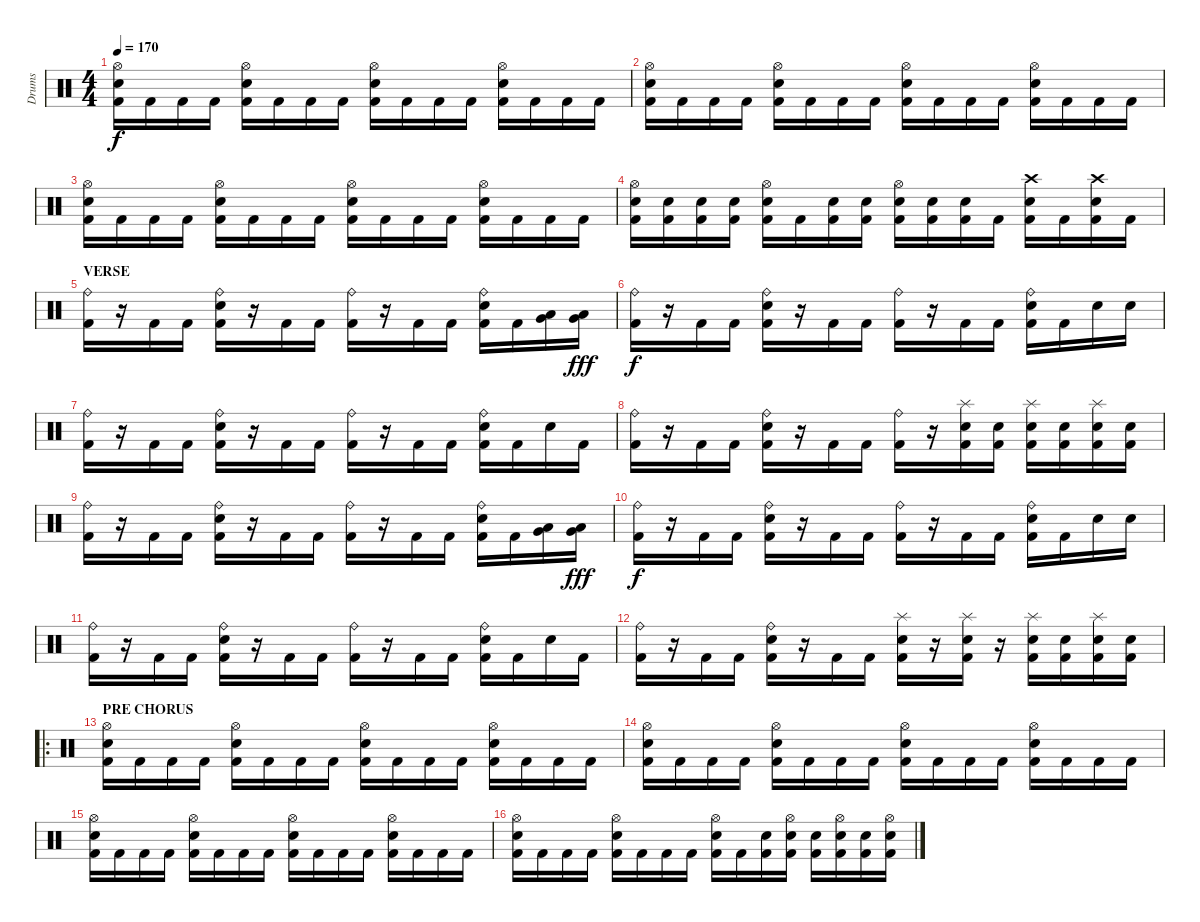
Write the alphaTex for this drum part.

\track ("Drums" "Drums") {instrument percussion}
\staff {score}
\articulation defaults
\ts (4 4)
\tempo 170
\clef neutral
\ks c
("Hi-Hat (open)" "Electric Snare (hit)" "Kick (hit) 2").16{dy f} "Kick (hit) 2".16 "Kick (hit) 2".16 "Kick (hit) 2".16 ("Hi-Hat (open)" "Electric Snare (hit)" "Kick (hit) 2").16 "Kick (hit) 2".16 "Kick (hit) 2".16 "Kick (hit) 2".16 ("Hi-Hat (open)" "Electric Snare (hit)" "Kick (hit) 2").16 "Kick (hit) 2".16 "Kick (hit) 2".16 "Kick (hit) 2".16 ("Hi-Hat (open)" "Electric Snare (hit)" "Kick (hit) 2").16 "Kick (hit) 2".16 "Kick (hit) 2".16 "Kick (hit) 2".16 |
("Hi-Hat (open)" "Electric Snare (hit)" "Kick (hit) 2").16 "Kick (hit) 2".16 "Kick (hit) 2".16 "Kick (hit) 2".16 ("Hi-Hat (open)" "Electric Snare (hit)" "Kick (hit) 2").16 "Kick (hit) 2".16 "Kick (hit) 2".16 "Kick (hit) 2".16 ("Hi-Hat (open)" "Electric Snare (hit)" "Kick (hit) 2").16 "Kick (hit) 2".16 "Kick (hit) 2".16 "Kick (hit) 2".16 ("Hi-Hat (open)" "Electric Snare (hit)" "Kick (hit) 2").16 "Kick (hit) 2".16 "Kick (hit) 2".16 "Kick (hit) 2".16 |
("Hi-Hat (open)" "Electric Snare (hit)" "Kick (hit) 2").16 "Kick (hit) 2".16 "Kick (hit) 2".16 "Kick (hit) 2".16 ("Hi-Hat (open)" "Electric Snare (hit)" "Kick (hit) 2").16 "Kick (hit) 2".16 "Kick (hit) 2".16 "Kick (hit) 2".16 ("Hi-Hat (open)" "Electric Snare (hit)" "Kick (hit) 2").16 "Kick (hit) 2".16 "Kick (hit) 2".16 "Kick (hit) 2".16 ("Hi-Hat (open)" "Electric Snare (hit)" "Kick (hit) 2").16 "Kick (hit) 2".16 "Kick (hit) 2".16 "Kick (hit) 2".16 |
("Hi-Hat (open)" "Electric Snare (hit)" "Kick (hit) 2").16 ("Electric Snare (hit)" "Kick (hit) 2").16 ("Electric Snare (hit)" "Kick (hit) 2").16 ("Electric Snare (hit)" "Kick (hit) 2").16 ("Hi-Hat (open)" "Electric Snare (hit)" "Kick (hit) 2").16 "Kick (hit) 2".16 ("Electric Snare (hit)" "Kick (hit) 2").16 ("Electric Snare (hit)" "Kick (hit) 2").16 ("Hi-Hat (open)" "Electric Snare (hit)" "Kick (hit) 2").16 ("Electric Snare (hit)" "Kick (hit) 2").16 ("Electric Snare (hit)" "Kick (hit) 2").16 "Kick (hit) 2".16 ("Crash high (hit)" "Electric Snare (hit)" "Kick (hit) 2").16 "Kick (hit) 2".16 ("Crash high (hit)" "Electric Snare (hit)" "Kick (hit) 2").16 "Kick (hit) 2".16 |
\section ("" "VERSE")
("Ride (bell)" "Kick (hit) 2").16 r.16 "Kick (hit) 2".16 "Kick (hit) 2".16 ("Ride (bell)" "Electric Snare (hit)" "Kick (hit) 2").16 r.16 "Kick (hit) 2".16 "Kick (hit) 2".16 ("Ride (bell)" "Kick (hit) 2").16 r.16 "Kick (hit) 2".16 "Kick (hit) 2".16 ("Ride (bell)" "Electric Snare (hit)" "Kick (hit) 2").16 "Kick (hit) 2".16 ("Low Floor Tom (hit)" "Very Low Tom (hit)").16 ("Low Floor Tom (hit)" "Very Low Tom (hit)").16{dy fff} |
("Ride (bell)" "Kick (hit) 2").16{dy f} r.16 "Kick (hit) 2".16 "Kick (hit) 2".16 ("Ride (bell)" "Electric Snare (hit)" "Kick (hit) 2").16 r.16 "Kick (hit) 2".16 "Kick (hit) 2".16 ("Ride (bell)" "Kick (hit) 2").16 r.16 "Kick (hit) 2".16 "Kick (hit) 2".16 ("Ride (bell)" "Electric Snare (hit)" "Kick (hit) 2").16 "Kick (hit) 2".16 "Electric Snare (hit)".16 "Electric Snare (hit)".16 |
("Ride (bell)" "Kick (hit) 2").16 r.16 "Kick (hit) 2".16 "Kick (hit) 2".16 ("Ride (bell)" "Electric Snare (hit)" "Kick (hit) 2").16 r.16 "Kick (hit) 2".16 "Kick (hit) 2".16 ("Ride (bell)" "Kick (hit) 2").16 r.16 "Kick (hit) 2".16 "Kick (hit) 2".16 ("Ride (bell)" "Electric Snare (hit)" "Kick (hit) 2").16 "Kick (hit) 2".16 "Electric Snare (hit)".16 "Kick (hit) 2".16 |
("Ride (bell)" "Kick (hit) 2").16 r.16 "Kick (hit) 2".16 "Kick (hit) 2".16 ("Ride (bell)" "Electric Snare (hit)" "Kick (hit) 2").16 r.16 "Kick (hit) 2".16 "Kick (hit) 2".16 ("Ride (bell)" "Kick (hit) 2").16 r.16 ("Splash (hit)" "Electric Snare (hit)" "Kick (hit) 2").16 ("Electric Snare (hit)" "Kick (hit) 2").16 ("Splash (hit)" "Electric Snare (hit)" "Kick (hit) 2").16 ("Electric Snare (hit)" "Kick (hit) 2").16 ("Splash (hit)" "Electric Snare (hit)" "Kick (hit) 2").16 ("Electric Snare (hit)" "Kick (hit) 2").16 |
("Ride (bell)" "Kick (hit) 2").16 r.16 "Kick (hit) 2".16 "Kick (hit) 2".16 ("Ride (bell)" "Electric Snare (hit)" "Kick (hit) 2").16 r.16 "Kick (hit) 2".16 "Kick (hit) 2".16 ("Ride (bell)" "Kick (hit) 2").16 r.16 "Kick (hit) 2".16 "Kick (hit) 2".16 ("Ride (bell)" "Electric Snare (hit)" "Kick (hit) 2").16 "Kick (hit) 2".16 ("Low Floor Tom (hit)" "Very Low Tom (hit)").16 ("Low Floor Tom (hit)" "Very Low Tom (hit)").16{dy fff} |
("Ride (bell)" "Kick (hit) 2").16{dy f} r.16 "Kick (hit) 2".16 "Kick (hit) 2".16 ("Ride (bell)" "Electric Snare (hit)" "Kick (hit) 2").16 r.16 "Kick (hit) 2".16 "Kick (hit) 2".16 ("Ride (bell)" "Kick (hit) 2").16 r.16 "Kick (hit) 2".16 "Kick (hit) 2".16 ("Ride (bell)" "Electric Snare (hit)" "Kick (hit) 2").16 "Kick (hit) 2".16 "Electric Snare (hit)".16 "Electric Snare (hit)".16 |
("Ride (bell)" "Kick (hit) 2").16 r.16 "Kick (hit) 2".16 "Kick (hit) 2".16 ("Ride (bell)" "Electric Snare (hit)" "Kick (hit) 2").16 r.16 "Kick (hit) 2".16 "Kick (hit) 2".16 ("Ride (bell)" "Kick (hit) 2").16 r.16 "Kick (hit) 2".16 "Kick (hit) 2".16 ("Ride (bell)" "Electric Snare (hit)" "Kick (hit) 2").16 "Kick (hit) 2".16 "Electric Snare (hit)".16 "Kick (hit) 2".16 |
("Ride (bell)" "Kick (hit) 2").16 r.16 "Kick (hit) 2".16 "Kick (hit) 2".16 ("Ride (bell)" "Electric Snare (hit)" "Kick (hit) 2").16 r.16 "Kick (hit) 2".16 "Kick (hit) 2".16 ("Splash (hit)" "Electric Snare (hit)" "Kick (hit) 2").16 r.16 ("Splash (hit)" "Electric Snare (hit)" "Kick (hit) 2").16 r.16 ("Splash (hit)" "Electric Snare (hit)" "Kick (hit) 2").16 ("Electric Snare (hit)" "Kick (hit) 2").16 ("Splash (hit)" "Electric Snare (hit)" "Kick (hit) 2").16 ("Electric Snare (hit)" "Kick (hit) 2").16 |
\ro
\section ("" "PRE CHORUS")
("Hi-Hat (open)" "Electric Snare (hit)" "Kick (hit) 2").16 "Kick (hit) 2".16 "Kick (hit) 2".16 "Kick (hit) 2".16 ("Hi-Hat (open)" "Electric Snare (hit)" "Kick (hit) 2").16 "Kick (hit) 2".16 "Kick (hit) 2".16 "Kick (hit) 2".16 ("Hi-Hat (open)" "Electric Snare (hit)" "Kick (hit) 2").16 "Kick (hit) 2".16 "Kick (hit) 2".16 "Kick (hit) 2".16 ("Hi-Hat (open)" "Electric Snare (hit)" "Kick (hit) 2").16 "Kick (hit) 2".16 "Kick (hit) 2".16 "Kick (hit) 2".16 |
("Hi-Hat (open)" "Electric Snare (hit)" "Kick (hit) 2").16 "Kick (hit) 2".16 "Kick (hit) 2".16 "Kick (hit) 2".16 ("Hi-Hat (open)" "Electric Snare (hit)" "Kick (hit) 2").16 "Kick (hit) 2".16 "Kick (hit) 2".16 "Kick (hit) 2".16 ("Hi-Hat (open)" "Electric Snare (hit)" "Kick (hit) 2").16 "Kick (hit) 2".16 "Kick (hit) 2".16 "Kick (hit) 2".16 ("Hi-Hat (open)" "Electric Snare (hit)" "Kick (hit) 2").16 "Kick (hit) 2".16 "Kick (hit) 2".16 "Kick (hit) 2".16 |
("Hi-Hat (open)" "Electric Snare (hit)" "Kick (hit) 2").16 "Kick (hit) 2".16 "Kick (hit) 2".16 "Kick (hit) 2".16 ("Hi-Hat (open)" "Electric Snare (hit)" "Kick (hit) 2").16 "Kick (hit) 2".16 "Kick (hit) 2".16 "Kick (hit) 2".16 ("Hi-Hat (open)" "Electric Snare (hit)" "Kick (hit) 2").16 "Kick (hit) 2".16 "Kick (hit) 2".16 "Kick (hit) 2".16 ("Hi-Hat (open)" "Electric Snare (hit)" "Kick (hit) 2").16 "Kick (hit) 2".16 "Kick (hit) 2".16 "Kick (hit) 2".16 |
("Hi-Hat (open)" "Electric Snare (hit)" "Kick (hit) 2").16 "Kick (hit) 2".16 "Kick (hit) 2".16 "Kick (hit) 2".16 ("Hi-Hat (open)" "Electric Snare (hit)" "Kick (hit) 2").16 "Kick (hit) 2".16 "Kick (hit) 2".16 "Kick (hit) 2".16 ("Hi-Hat (open)" "Electric Snare (hit)" "Kick (hit) 2").16 "Kick (hit) 2".16 ("Electric Snare (hit)" "Kick (hit) 2").16 ("Hi-Hat (open)" "Electric Snare (hit)" "Kick (hit) 2").16 ("Electric Snare (hit)" "Kick (hit) 2").16 ("Hi-Hat (open)" "Electric Snare (hit)" "Kick (hit) 2").16 ("Electric Snare (hit)" "Kick (hit) 2").16 ("Hi-Hat (open)" "Electric Snare (hit)" "Kick (hit) 2").16
